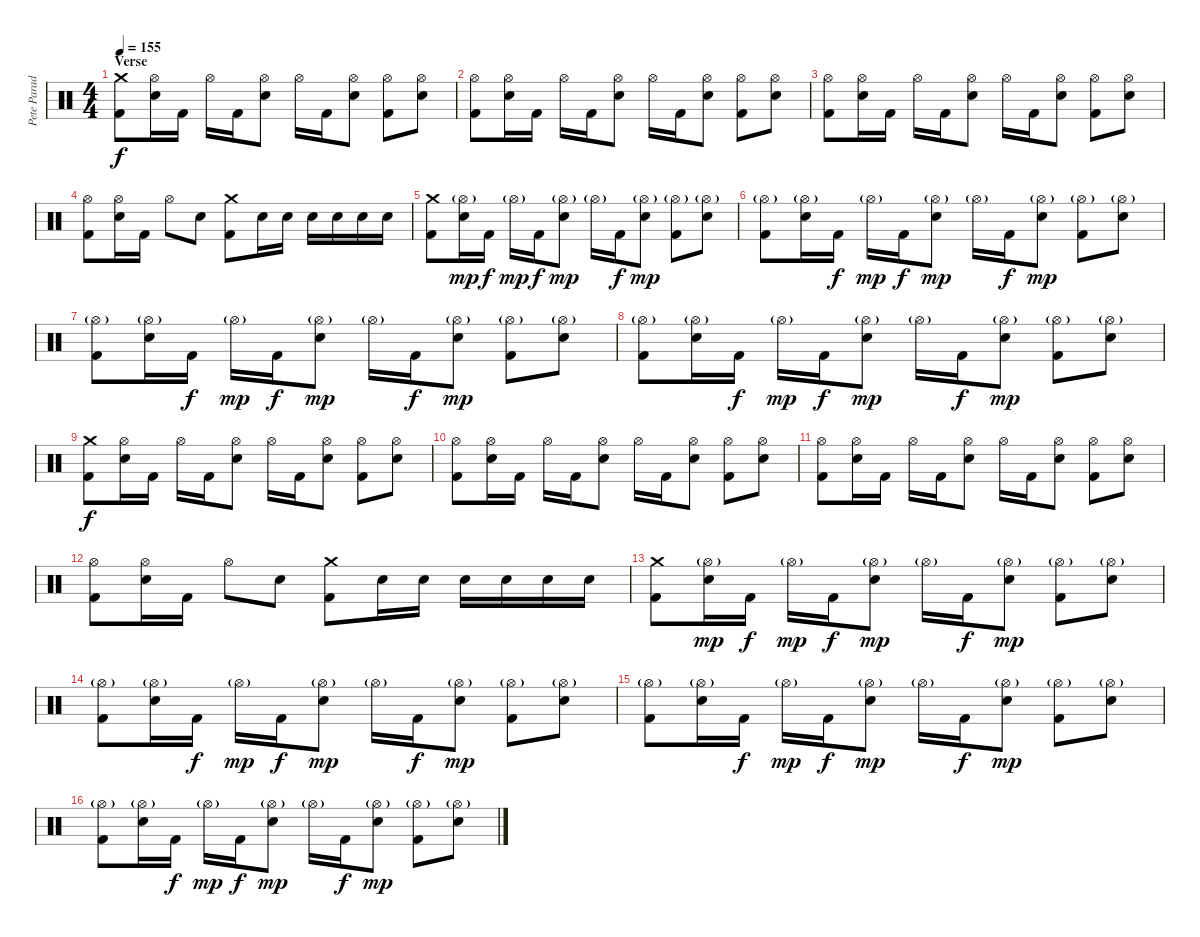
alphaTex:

\track ("Pete Parada - Drums" "Pete Parad") {instrument percussion}
\staff {score}
\articulation defaults
\ts (4 4)
\section ("" "Verse")
\tempo 155
\clef neutral
\ks c
("Crash medium (hit)" "Kick (hit) 2").8{dy f} ("Hi-Hat (open)" "Electric Snare (hit)").16 "Kick (hit) 2".16 "Hi-Hat (open)".16 "Kick (hit) 2".16 ("Hi-Hat (open)" "Electric Snare (hit)").8 "Hi-Hat (open)".16 "Kick (hit) 2".16 ("Hi-Hat (open)" "Electric Snare (hit)").8 ("Hi-Hat (open)" "Kick (hit) 2").8 ("Hi-Hat (open)" "Electric Snare (hit)").8 |
("Hi-Hat (open)" "Kick (hit) 2").8 ("Hi-Hat (open)" "Electric Snare (hit)").16 "Kick (hit) 2".16 "Hi-Hat (open)".16 "Kick (hit) 2".16 ("Hi-Hat (open)" "Electric Snare (hit)").8 "Hi-Hat (open)".16 "Kick (hit) 2".16 ("Hi-Hat (open)" "Electric Snare (hit)").8 ("Hi-Hat (open)" "Kick (hit) 2").8 ("Hi-Hat (open)" "Electric Snare (hit)").8 |
("Hi-Hat (open)" "Kick (hit) 2").8 ("Hi-Hat (open)" "Electric Snare (hit)").16 "Kick (hit) 2".16 "Hi-Hat (open)".16 "Kick (hit) 2".16 ("Hi-Hat (open)" "Electric Snare (hit)").8 "Hi-Hat (open)".16 "Kick (hit) 2".16 ("Hi-Hat (open)" "Electric Snare (hit)").8 ("Hi-Hat (open)" "Kick (hit) 2").8 ("Hi-Hat (open)" "Electric Snare (hit)").8 |
("Hi-Hat (open)" "Kick (hit) 2").8 ("Hi-Hat (open)" "Electric Snare (hit)").16 "Kick (hit) 2".16 "Hi-Hat (open)".8 "Electric Snare (hit)".8 ("Crash medium (hit)" "Kick (hit) 2").8 "Electric Snare (hit)".16 "Electric Snare (hit)".16 "Electric Snare (hit)".16 "Electric Snare (hit)".16 "Electric Snare (hit)".16 "Electric Snare (hit)".16 |
("Crash medium (hit)" "Kick (hit) 2").8 ("Hi-Hat (open)"{g} "Electric Snare (hit)").16{dy mp} "Kick (hit) 2".16{dy f} "Hi-Hat (open)"{g}.16{dy mp} "Kick (hit) 2".16{dy f} ("Hi-Hat (open)"{g} "Electric Snare (hit)").8{dy mp} "Hi-Hat (open)"{g}.16 "Kick (hit) 2".16{dy f} ("Hi-Hat (open)"{g} "Electric Snare (hit)").8{dy mp} ("Hi-Hat (open)"{g} "Kick (hit) 2").8 ("Hi-Hat (open)"{g} "Electric Snare (hit)").8 |
("Hi-Hat (open)"{g} "Kick (hit) 2").8 ("Hi-Hat (open)"{g} "Electric Snare (hit)").16 "Kick (hit) 2".16{dy f} "Hi-Hat (open)"{g}.16{dy mp} "Kick (hit) 2".16{dy f} ("Hi-Hat (open)"{g} "Electric Snare (hit)").8{dy mp} "Hi-Hat (open)"{g}.16 "Kick (hit) 2".16{dy f} ("Hi-Hat (open)"{g} "Electric Snare (hit)").8{dy mp} ("Hi-Hat (open)"{g} "Kick (hit) 2").8 ("Hi-Hat (open)"{g} "Electric Snare (hit)").8 |
("Hi-Hat (open)"{g} "Kick (hit) 2").8 ("Hi-Hat (open)"{g} "Electric Snare (hit)").16 "Kick (hit) 2".16{dy f} "Hi-Hat (open)"{g}.16{dy mp} "Kick (hit) 2".16{dy f} ("Hi-Hat (open)"{g} "Electric Snare (hit)").8{dy mp} "Hi-Hat (open)"{g}.16 "Kick (hit) 2".16{dy f} ("Hi-Hat (open)"{g} "Electric Snare (hit)").8{dy mp} ("Hi-Hat (open)"{g} "Kick (hit) 2").8 ("Hi-Hat (open)"{g} "Electric Snare (hit)").8 |
("Hi-Hat (open)"{g} "Kick (hit) 2").8 ("Hi-Hat (open)"{g} "Electric Snare (hit)").16 "Kick (hit) 2".16{dy f} "Hi-Hat (open)"{g}.16{dy mp} "Kick (hit) 2".16{dy f} ("Hi-Hat (open)"{g} "Electric Snare (hit)").8{dy mp} "Hi-Hat (open)"{g}.16 "Kick (hit) 2".16{dy f} ("Hi-Hat (open)"{g} "Electric Snare (hit)").8{dy mp} ("Hi-Hat (open)"{g} "Kick (hit) 2").8 ("Hi-Hat (open)"{g} "Electric Snare (hit)").8 |
("Crash medium (hit)" "Kick (hit) 2").8{dy f} ("Hi-Hat (open)" "Electric Snare (hit)").16 "Kick (hit) 2".16 "Hi-Hat (open)".16 "Kick (hit) 2".16 ("Hi-Hat (open)" "Electric Snare (hit)").8 "Hi-Hat (open)".16 "Kick (hit) 2".16 ("Hi-Hat (open)" "Electric Snare (hit)").8 ("Hi-Hat (open)" "Kick (hit) 2").8 ("Hi-Hat (open)" "Electric Snare (hit)").8 |
("Hi-Hat (open)" "Kick (hit) 2").8 ("Hi-Hat (open)" "Electric Snare (hit)").16 "Kick (hit) 2".16 "Hi-Hat (open)".16 "Kick (hit) 2".16 ("Hi-Hat (open)" "Electric Snare (hit)").8 "Hi-Hat (open)".16 "Kick (hit) 2".16 ("Hi-Hat (open)" "Electric Snare (hit)").8 ("Hi-Hat (open)" "Kick (hit) 2").8 ("Hi-Hat (open)" "Electric Snare (hit)").8 |
("Hi-Hat (open)" "Kick (hit) 2").8 ("Hi-Hat (open)" "Electric Snare (hit)").16 "Kick (hit) 2".16 "Hi-Hat (open)".16 "Kick (hit) 2".16 ("Hi-Hat (open)" "Electric Snare (hit)").8 "Hi-Hat (open)".16 "Kick (hit) 2".16 ("Hi-Hat (open)" "Electric Snare (hit)").8 ("Hi-Hat (open)" "Kick (hit) 2").8 ("Hi-Hat (open)" "Electric Snare (hit)").8 |
("Hi-Hat (open)" "Kick (hit) 2").8 ("Hi-Hat (open)" "Electric Snare (hit)").16 "Kick (hit) 2".16 "Hi-Hat (open)".8 "Electric Snare (hit)".8 ("Crash medium (hit)" "Kick (hit) 2").8 "Electric Snare (hit)".16 "Electric Snare (hit)".16 "Electric Snare (hit)".16 "Electric Snare (hit)".16 "Electric Snare (hit)".16 "Electric Snare (hit)".16 |
("Crash medium (hit)" "Kick (hit) 2").8 ("Hi-Hat (open)"{g} "Electric Snare (hit)").16{dy mp} "Kick (hit) 2".16{dy f} "Hi-Hat (open)"{g}.16{dy mp} "Kick (hit) 2".16{dy f} ("Hi-Hat (open)"{g} "Electric Snare (hit)").8{dy mp} "Hi-Hat (open)"{g}.16 "Kick (hit) 2".16{dy f} ("Hi-Hat (open)"{g} "Electric Snare (hit)").8{dy mp} ("Hi-Hat (open)"{g} "Kick (hit) 2").8 ("Hi-Hat (open)"{g} "Electric Snare (hit)").8 |
("Hi-Hat (open)"{g} "Kick (hit) 2").8 ("Hi-Hat (open)"{g} "Electric Snare (hit)").16 "Kick (hit) 2".16{dy f} "Hi-Hat (open)"{g}.16{dy mp} "Kick (hit) 2".16{dy f} ("Hi-Hat (open)"{g} "Electric Snare (hit)").8{dy mp} "Hi-Hat (open)"{g}.16 "Kick (hit) 2".16{dy f} ("Hi-Hat (open)"{g} "Electric Snare (hit)").8{dy mp} ("Hi-Hat (open)"{g} "Kick (hit) 2").8 ("Hi-Hat (open)"{g} "Electric Snare (hit)").8 |
("Hi-Hat (open)"{g} "Kick (hit) 2").8 ("Hi-Hat (open)"{g} "Electric Snare (hit)").16 "Kick (hit) 2".16{dy f} "Hi-Hat (open)"{g}.16{dy mp} "Kick (hit) 2".16{dy f} ("Hi-Hat (open)"{g} "Electric Snare (hit)").8{dy mp} "Hi-Hat (open)"{g}.16 "Kick (hit) 2".16{dy f} ("Hi-Hat (open)"{g} "Electric Snare (hit)").8{dy mp} ("Hi-Hat (open)"{g} "Kick (hit) 2").8 ("Hi-Hat (open)"{g} "Electric Snare (hit)").8 |
("Hi-Hat (open)"{g} "Kick (hit) 2").8 ("Hi-Hat (open)"{g} "Electric Snare (hit)").16 "Kick (hit) 2".16{dy f} "Hi-Hat (open)"{g}.16{dy mp} "Kick (hit) 2".16{dy f} ("Hi-Hat (open)"{g} "Electric Snare (hit)").8{dy mp} "Hi-Hat (open)"{g}.16 "Kick (hit) 2".16{dy f} ("Hi-Hat (open)"{g} "Electric Snare (hit)").8{dy mp} ("Hi-Hat (open)"{g} "Kick (hit) 2").8 ("Hi-Hat (open)"{g} "Electric Snare (hit)").8
